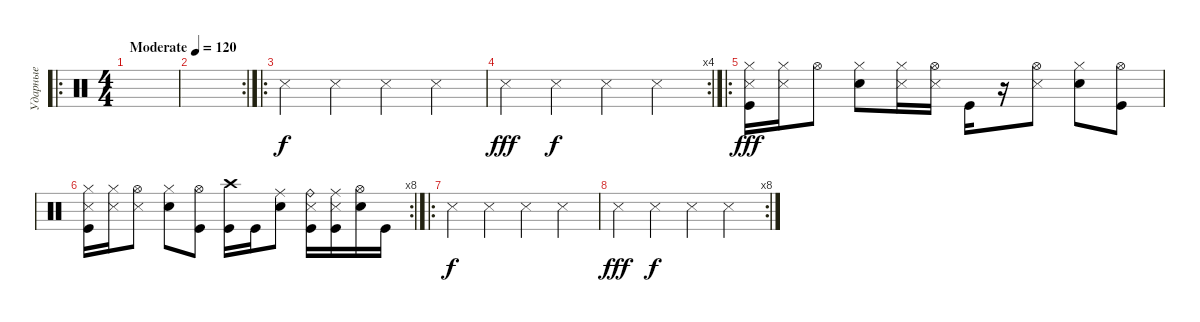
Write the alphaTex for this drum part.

\track ("Ударные" "Ударные") {instrument percussion}
\staff {score}
\articulation defaults
\ro
\ts (4 4)
\tempo (120 "Moderate")
\clef neutral
\ks c
|
\rc 2
|
\ro "Snare (side stick) 3".4 "Snare (side stick) 3".4 "Snare (side stick) 3".4 "Snare (side stick) 3".4
|
\rc 4 "Snare (side stick) 3".4{dy fff} "Snare (side stick) 3".4{dy f} "Snare (side stick) 3".4 "Snare (side stick) 3".4
|
\ro
("Hi-Hat (closed)" "Snare (side stick) 3" "Kick (hit)").16{dy fff} ("Hi-Hat (closed)" "Snare (side stick) 3").16 "Hi-Hat (open)".8 ("Hi-Hat (closed)" "Electric Snare (hit)").8 ("Hi-Hat (closed)" "Snare (side stick) 3").16 ("Hi-Hat (open)" "Snare (side stick) 3").16 "Kick (hit)".16 r.16 ("Hi-Hat (open)" "Snare (side stick) 3").8 ("Hi-Hat (closed)" "Electric Snare (hit)").8 ("Hi-Hat (open)" "Kick (hit)").8 |
\rc 8
("Hi-Hat (closed)" "Snare (side stick) 3" "Kick (hit)").16 ("Hi-Hat (closed)" "Snare (side stick) 3").16 ("Hi-Hat (open)" "Snare (side stick) 3").8 ("Hi-Hat (closed)" "Electric Snare (hit)").8 ("Hi-Hat (open)" "Kick (hit)").8 ("Crash high (hit)" "Kick (hit)").16 "Kick (hit)".16 ("Ride (middle)" "Electric Snare (hit)").8 ("Ride (bell)" "Snare (side stick) 3" "Kick (hit)").16 ("Ride (middle)" "Snare (side stick) 3" "Kick (hit)").16 ("Hi-Hat (open)" "Electric Snare (hit)").16 "Kick (hit)".16 |
\ro "Snare (side stick) 3".4{dy f} "Snare (side stick) 3".4 "Snare (side stick) 3".4 "Snare (side stick) 3".4
|
\rc 8 "Snare (side stick) 3".4{dy fff} "Snare (side stick) 3".4{dy f} "Snare (side stick) 3".4 "Snare (side stick) 3".4
